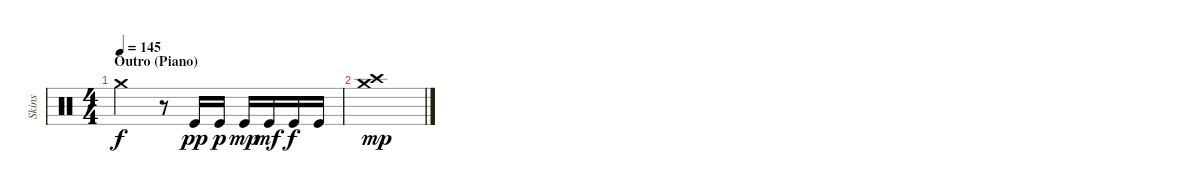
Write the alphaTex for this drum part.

\track ("Skins" "Skins") {instrument percussion}
\staff {score}
\articulation defaults
\ts (4 4)
\section ("" "Outro (Piano)")
\tempo 145
\clef neutral
\ks c "Crash medium (hit)".2{dy f}
r.8 "Kick (hit)".16{dy pp} "Kick (hit)".16{dy p} "Kick (hit)".16{dy mp} "Kick (hit)".16{dy mf} "Kick (hit)".16{dy f} "Kick (hit)".16 |
("Crash high (hit)" "Crash medium (hit)").1{dy mp}
